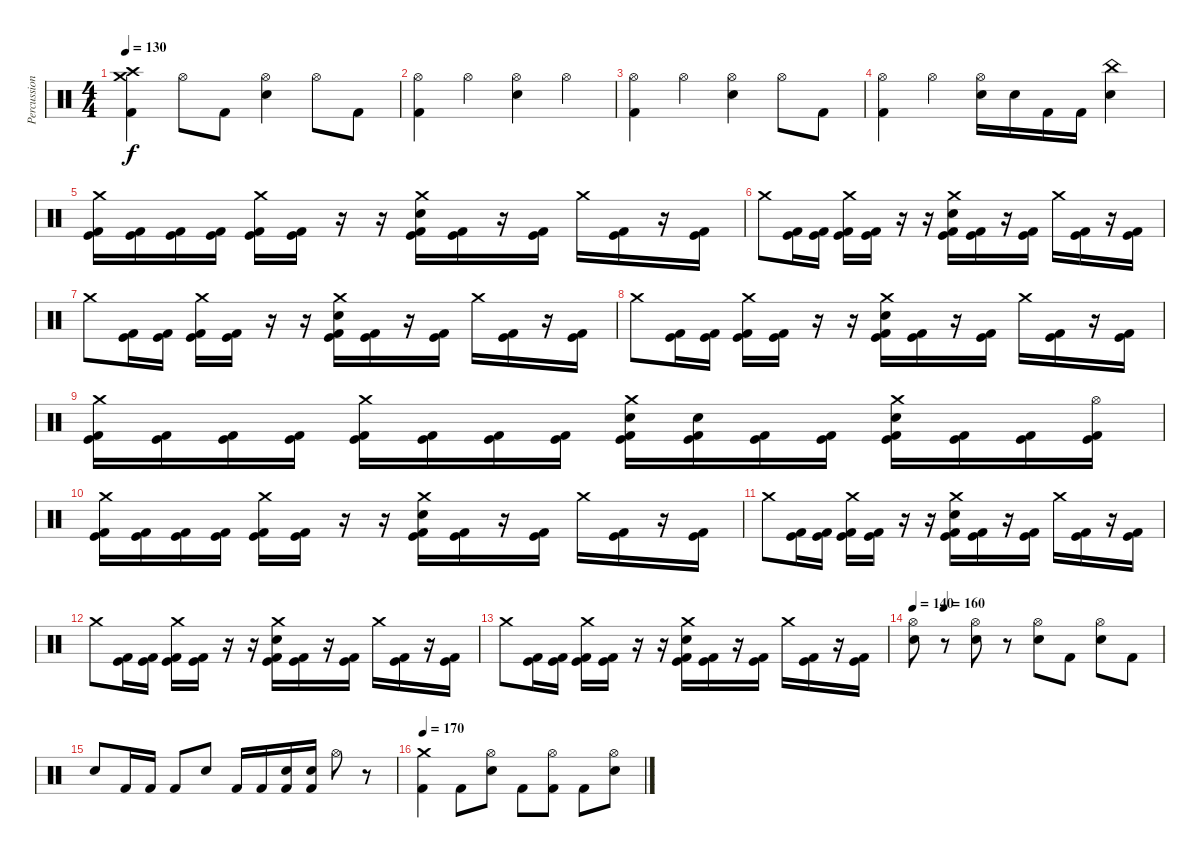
\track ("Percussion" "Percussion") {instrument percussion}
\staff {score}
\articulation defaults
\ts (4 4)
\tempo 130
\clef neutral
\ks c
("Crash medium (hit)" "Crash high (hit)" "Kick (hit) 2").4{dy f} "Hi-Hat (open)".8 "Kick (hit) 2".8 ("Hi-Hat (open)" "Electric Snare (hit)").4 "Hi-Hat (open)".8 "Kick (hit) 2".8 |
("Hi-Hat (open)" "Kick (hit) 2").4 "Hi-Hat (open)".4 ("Hi-Hat (open)" "Electric Snare (hit)").4 "Hi-Hat (open)".4 |
("Hi-Hat (open)" "Kick (hit) 2").4 "Hi-Hat (open)".4 ("Hi-Hat (open)" "Electric Snare (hit)").4 "Hi-Hat (open)".8 "Kick (hit) 2".8 |
("Hi-Hat (open)" "Kick (hit) 2").4 "Hi-Hat (open)".4 ("Hi-Hat (open)" "Electric Snare (hit)").16 "Electric Snare (hit)".16 "Kick (hit) 2".16 "Kick (hit) 2".16 ("China (hit)" "Electric Snare (hit)").4 |
("Crash medium (hit)" "Kick (hit)" "Kick (hit) 2").16 ("Kick (hit)" "Kick (hit) 2").16 ("Kick (hit)" "Kick (hit) 2").16 ("Kick (hit)" "Kick (hit) 2").16 ("Crash medium (hit)" "Kick (hit)" "Kick (hit) 2").16 ("Kick (hit)" "Kick (hit) 2").16 r.16 r.16 ("Crash medium (hit)" "Electric Snare (hit)" "Kick (hit)" "Kick (hit) 2").16 ("Kick (hit)" "Kick (hit) 2").16 r.16 ("Kick (hit)" "Kick (hit) 2").16 "Crash medium (hit)".16 ("Kick (hit)" "Kick (hit) 2").16 r.16 ("Kick (hit)" "Kick (hit) 2").16 |
"Crash medium (hit)".8 ("Kick (hit)" "Kick (hit) 2").16 ("Kick (hit)" "Kick (hit) 2").16 ("Crash medium (hit)" "Kick (hit)" "Kick (hit) 2").16 ("Kick (hit)" "Kick (hit) 2").16 r.16 r.16 ("Crash medium (hit)" "Electric Snare (hit)" "Kick (hit)" "Kick (hit) 2").16 ("Kick (hit)" "Kick (hit) 2").16 r.16 ("Kick (hit)" "Kick (hit) 2").16 "Crash medium (hit)".16 ("Kick (hit)" "Kick (hit) 2").16 r.16 ("Kick (hit)" "Kick (hit) 2").16 |
"Crash medium (hit)".8 ("Kick (hit)" "Kick (hit) 2").16 ("Kick (hit)" "Kick (hit) 2").16 ("Crash medium (hit)" "Kick (hit)" "Kick (hit) 2").16 ("Kick (hit)" "Kick (hit) 2").16 r.16 r.16 ("Crash medium (hit)" "Electric Snare (hit)" "Kick (hit)" "Kick (hit) 2").16 ("Kick (hit)" "Kick (hit) 2").16 r.16 ("Kick (hit)" "Kick (hit) 2").16 "Crash medium (hit)".16 ("Kick (hit)" "Kick (hit) 2").16 r.16 ("Kick (hit)" "Kick (hit) 2").16 |
"Crash medium (hit)".8 ("Kick (hit)" "Kick (hit) 2").16 ("Kick (hit)" "Kick (hit) 2").16 ("Crash medium (hit)" "Kick (hit)" "Kick (hit) 2").16 ("Kick (hit)" "Kick (hit) 2").16 r.16 r.16 ("Crash medium (hit)" "Electric Snare (hit)" "Kick (hit)" "Kick (hit) 2").16 ("Kick (hit)" "Kick (hit) 2").16 r.16 ("Kick (hit)" "Kick (hit) 2").16 "Crash medium (hit)".16 ("Kick (hit)" "Kick (hit) 2").16 r.16 ("Kick (hit)" "Kick (hit) 2").16 |
("Crash medium (hit)" "Kick (hit)" "Kick (hit) 2").16 ("Kick (hit)" "Kick (hit) 2").16 ("Kick (hit)" "Kick (hit) 2").16 ("Kick (hit)" "Kick (hit) 2").16 ("Crash medium (hit)" "Kick (hit)" "Kick (hit) 2").16 ("Kick (hit)" "Kick (hit) 2").16 ("Kick (hit)" "Kick (hit) 2").16 ("Kick (hit)" "Kick (hit) 2").16 ("Crash medium (hit)" "Electric Snare (hit)" "Kick (hit)" "Kick (hit) 2").16 ("Electric Snare (hit)" "Kick (hit)" "Kick (hit) 2").16 ("Kick (hit)" "Kick (hit) 2").16 ("Kick (hit)" "Kick (hit) 2").16 ("Crash medium (hit)" "Electric Snare (hit)" "Kick (hit)" "Kick (hit) 2").16 ("Kick (hit)" "Kick (hit) 2").16 ("Kick (hit)" "Kick (hit) 2").16 ("Hi-Hat (open)" "Kick (hit)" "Kick (hit) 2").16 |
("Crash medium (hit)" "Kick (hit)" "Kick (hit) 2").16 ("Kick (hit)" "Kick (hit) 2").16 ("Kick (hit)" "Kick (hit) 2").16 ("Kick (hit)" "Kick (hit) 2").16 ("Crash medium (hit)" "Kick (hit)" "Kick (hit) 2").16 ("Kick (hit)" "Kick (hit) 2").16 r.16 r.16 ("Crash medium (hit)" "Electric Snare (hit)" "Kick (hit)" "Kick (hit) 2").16 ("Kick (hit)" "Kick (hit) 2").16 r.16 ("Kick (hit)" "Kick (hit) 2").16 "Crash medium (hit)".16 ("Kick (hit)" "Kick (hit) 2").16 r.16 ("Kick (hit)" "Kick (hit) 2").16 |
"Crash medium (hit)".8 ("Kick (hit)" "Kick (hit) 2").16 ("Kick (hit)" "Kick (hit) 2").16 ("Crash medium (hit)" "Kick (hit)" "Kick (hit) 2").16 ("Kick (hit)" "Kick (hit) 2").16 r.16 r.16 ("Crash medium (hit)" "Electric Snare (hit)" "Kick (hit)" "Kick (hit) 2").16 ("Kick (hit)" "Kick (hit) 2").16 r.16 ("Kick (hit)" "Kick (hit) 2").16 "Crash medium (hit)".16 ("Kick (hit)" "Kick (hit) 2").16 r.16 ("Kick (hit)" "Kick (hit) 2").16 |
"Crash medium (hit)".8 ("Kick (hit)" "Kick (hit) 2").16 ("Kick (hit)" "Kick (hit) 2").16 ("Crash medium (hit)" "Kick (hit)" "Kick (hit) 2").16 ("Kick (hit)" "Kick (hit) 2").16 r.16 r.16 ("Crash medium (hit)" "Electric Snare (hit)" "Kick (hit)" "Kick (hit) 2").16 ("Kick (hit)" "Kick (hit) 2").16 r.16 ("Kick (hit)" "Kick (hit) 2").16 "Crash medium (hit)".16 ("Kick (hit)" "Kick (hit) 2").16 r.16 ("Kick (hit)" "Kick (hit) 2").16 |
"Crash medium (hit)".8 ("Kick (hit)" "Kick (hit) 2").16 ("Kick (hit)" "Kick (hit) 2").16 ("Crash medium (hit)" "Kick (hit)" "Kick (hit) 2").16 ("Kick (hit)" "Kick (hit) 2").16 r.16 r.16 ("Crash medium (hit)" "Electric Snare (hit)" "Kick (hit)" "Kick (hit) 2").16 ("Kick (hit)" "Kick (hit) 2").16 r.16 ("Kick (hit)" "Kick (hit) 2").16 "Crash medium (hit)".16 ("Kick (hit)" "Kick (hit) 2").16 r.16 ("Kick (hit)" "Kick (hit) 2").16 |
\tempo 140
\tempo (160 0.125)
("Hi-Hat (open)" "Electric Snare (hit)").8 r.8 ("Hi-Hat (open)" "Electric Snare (hit)").8 r.8 ("Hi-Hat (open)" "Electric Snare (hit)").8 "Kick (hit) 2".8 ("Hi-Hat (open)" "Electric Snare (hit)").8 "Kick (hit) 2".8 |
"Electric Snare (hit)".8 "Kick (hit) 2".16 "Kick (hit) 2".16 "Kick (hit) 2".8 "Electric Snare (hit)".8 "Kick (hit) 2".16 "Kick (hit) 2".16 ("Electric Snare (hit)" "Kick (hit) 2").16 ("Electric Snare (hit)" "Kick (hit) 2").16 "Hi-Hat (open)".8 r.8 |
\tempo 170
("Crash medium (hit)" "Kick (hit) 2").4 "Kick (hit) 2".8 ("Hi-Hat (open)" "Electric Snare (hit)").8 "Kick (hit) 2".8 ("Hi-Hat (open)" "Kick (hit) 2").8 "Kick (hit) 2".8 ("Hi-Hat (open)" "Electric Snare (hit)").8
